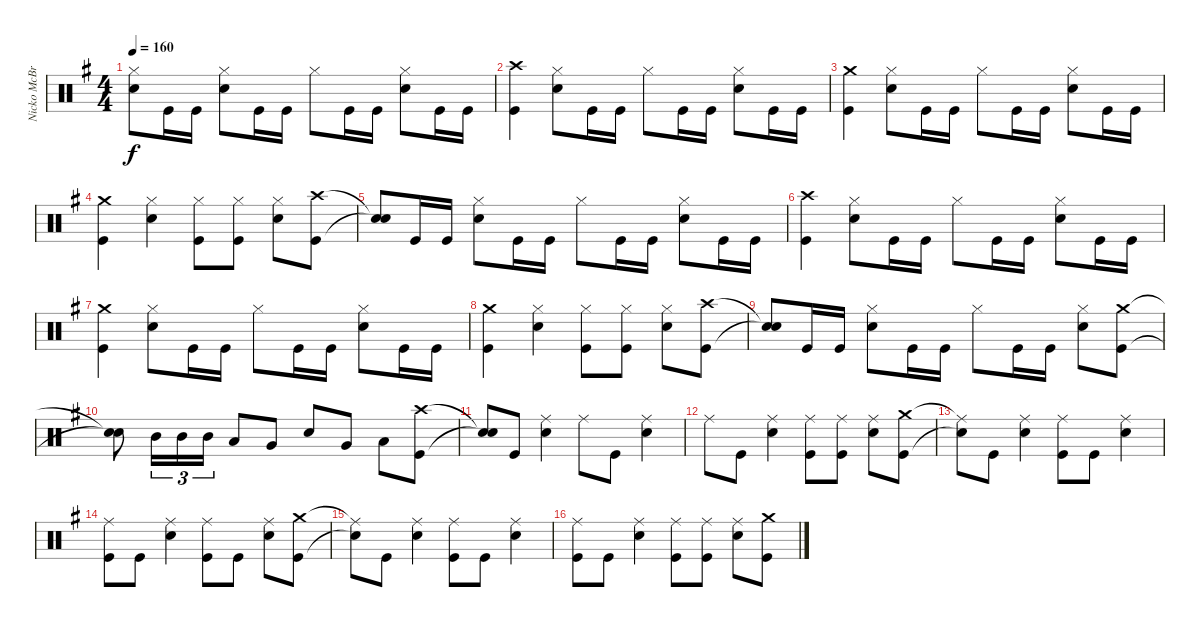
\track ("Nicko McBrain" "Nicko McBr") {instrument percussion}
\staff {score}
\articulation defaults
\ts (4 4)
\tempo 160
\clef neutral
\ks g
("Snare (hit)"{t} "Hi-Hat (closed)"{t}).8{dy f} "Kick (hit)".16 "Kick (hit)".16 ("Electric Snare (hit)" "Hi-Hat (closed)").8 "Kick (hit)".16 "Kick (hit)".16 "Hi-Hat (closed)".8 "Kick (hit)".16 "Kick (hit)".16 ("Electric Snare (hit)" "Hi-Hat (closed)").8 "Kick (hit)".16 "Kick (hit)".16 |
("Kick (hit)" "Crash high (hit)").4 ("Electric Snare (hit)" "Hi-Hat (closed)").8 "Kick (hit)".16 "Kick (hit)".16 "Hi-Hat (closed)".8 "Kick (hit)".16 "Kick (hit)".16 ("Electric Snare (hit)" "Hi-Hat (closed)").8 "Kick (hit)".16 "Kick (hit)".16 |
("Kick (hit)" "Crash medium (hit)").4 ("Electric Snare (hit)" "Hi-Hat (closed)").8 "Kick (hit)".16 "Kick (hit)".16 "Hi-Hat (closed)".8 "Kick (hit)".16 "Kick (hit)".16 ("Electric Snare (hit)" "Hi-Hat (closed)").8 "Kick (hit)".16 "Kick (hit)".16 |
("Crash medium (hit)" "Kick (hit)").4 ("Electric Snare (hit)" "Hi-Hat (closed)").4 ("Kick (hit)" "Hi-Hat (closed)").8 ("Kick (hit)" "Hi-Hat (closed)").8 ("Electric Snare (hit)" "Hi-Hat (closed)").8 ("Kick (hit)" "Crash high (hit)").8 |
("Snare (hit)"{t} "Snare (hit)"{t}).8 "Kick (hit)".16 "Kick (hit)".16 ("Electric Snare (hit)" "Hi-Hat (closed)").8 "Kick (hit)".16 "Kick (hit)".16 "Hi-Hat (closed)".8 "Kick (hit)".16 "Kick (hit)".16 ("Electric Snare (hit)" "Hi-Hat (closed)").8 "Kick (hit)".16 "Kick (hit)".16 |
("Kick (hit)" "Crash high (hit)").4 ("Electric Snare (hit)" "Hi-Hat (closed)").8 "Kick (hit)".16 "Kick (hit)".16 "Hi-Hat (closed)".8 "Kick (hit)".16 "Kick (hit)".16 ("Electric Snare (hit)" "Hi-Hat (closed)").8 "Kick (hit)".16 "Kick (hit)".16 |
("Kick (hit)" "Crash medium (hit)").4 ("Electric Snare (hit)" "Hi-Hat (closed)").8 "Kick (hit)".16 "Kick (hit)".16 "Hi-Hat (closed)".8 "Kick (hit)".16 "Kick (hit)".16 ("Electric Snare (hit)" "Hi-Hat (closed)").8 "Kick (hit)".16 "Kick (hit)".16 |
("Crash medium (hit)" "Kick (hit)").4 ("Electric Snare (hit)" "Hi-Hat (closed)").4 ("Kick (hit)" "Hi-Hat (closed)").8 ("Kick (hit)" "Hi-Hat (closed)").8 ("Electric Snare (hit)" "Hi-Hat (closed)").8 ("Kick (hit)" "Crash high (hit)").8 |
("Snare (hit)"{t} "Snare (hit)"{t}).8 "Kick (hit)".16 "Kick (hit)".16 ("Electric Snare (hit)" "Hi-Hat (closed)").8 "Kick (hit)".16 "Kick (hit)".16 "Hi-Hat (closed)".8 "Kick (hit)".16 "Kick (hit)".16 ("Electric Snare (hit)" "Hi-Hat (closed)").8 ("Kick (hit)" "Crash medium (hit)").8 |
("Snare (hit)"{t} "Snare (hit)"{t}).8 "Mid Tom (hit)".16{tu (3 2)} "Mid Tom (hit)".16{tu (3 2)} "Mid Tom (hit)".16{tu (3 2)} "Low Tom (hit)".8 "Very Low Tom (hit)".8 "Electric Snare (hit)".8 "Very Low Tom (hit)".8 "Low Floor Tom (hit)".8 ("Kick (hit)" "Crash high (hit)").8 |
("Snare (hit)"{t} "Snare (hit)"{t}).8 "Kick (hit)".8 ("Electric Snare (hit)" "Ride (middle)").4 "Ride (middle)".8 "Kick (hit)".8 ("Electric Snare (hit)" "Ride (middle)").4 |
"Ride (middle)".8 "Kick (hit)".8 ("Electric Snare (hit)" "Ride (middle)").4 ("Kick (hit)" "Ride (middle)").8 ("Kick (hit)" "Ride (middle)").8 ("Electric Snare (hit)" "Ride (middle)").8 ("Kick (hit)" "Crash medium (hit)").8 |
("Snare (hit)"{t} "Ride (middle)"{t}).8 "Kick (hit)".8 ("Electric Snare (hit)" "Ride (middle)").4 ("Kick (hit)" "Ride (middle)").8 "Kick (hit)".8 ("Electric Snare (hit)" "Ride (middle)").4 |
("Kick (hit)" "Ride (middle)").8 "Kick (hit)".8 ("Electric Snare (hit)" "Ride (middle)").4 ("Kick (hit)" "Ride (middle)").8 "Kick (hit)".8 ("Electric Snare (hit)" "Ride (middle)").8 ("Kick (hit)" "Crash medium (hit)").8 |
("Snare (hit)"{t} "Ride (middle)"{t}).8 "Kick (hit)".8 ("Electric Snare (hit)" "Ride (middle)").4 ("Kick (hit)" "Ride (middle)").8 "Kick (hit)".8 ("Electric Snare (hit)" "Ride (middle)").4 |
("Kick (hit)" "Ride (middle)").8 "Kick (hit)".8 ("Electric Snare (hit)" "Ride (middle)").4 ("Kick (hit)" "Ride (middle)").8 ("Kick (hit)" "Ride (middle)").8 ("Electric Snare (hit)" "Ride (middle)").8 ("Kick (hit)" "Crash medium (hit)").8
